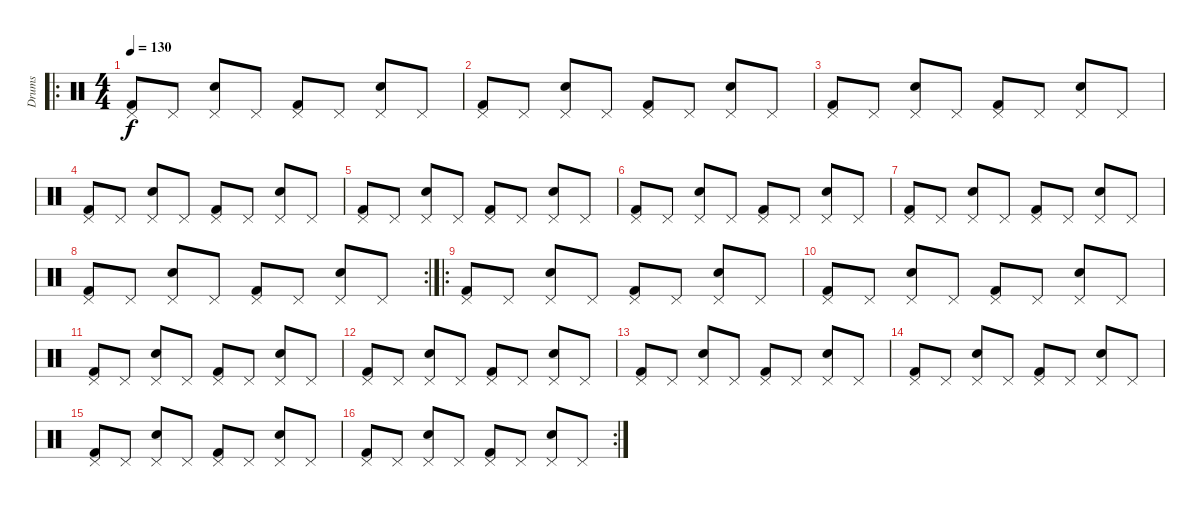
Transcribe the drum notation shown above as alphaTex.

\track ("Drums" "Drums") {instrument percussion}
\staff {score}
\articulation defaults
\ro
\ts (4 4)
\tempo 130
\clef neutral
\ks c
("Pedal Hi-Hat (hit)" "Kick (hit) 2").8{dy f} "Pedal Hi-Hat (hit)".8 ("Pedal Hi-Hat (hit)" "Snare (hit) 2").8 "Pedal Hi-Hat (hit)".8 ("Pedal Hi-Hat (hit)" "Kick (hit) 2").8 "Pedal Hi-Hat (hit)".8 ("Pedal Hi-Hat (hit)" "Snare (hit) 2").8 "Pedal Hi-Hat (hit)".8 |
("Pedal Hi-Hat (hit)" "Kick (hit) 2").8 "Pedal Hi-Hat (hit)".8 ("Pedal Hi-Hat (hit)" "Snare (hit) 2").8 "Pedal Hi-Hat (hit)".8 ("Pedal Hi-Hat (hit)" "Kick (hit) 2").8 "Pedal Hi-Hat (hit)".8 ("Pedal Hi-Hat (hit)" "Snare (hit) 2").8 "Pedal Hi-Hat (hit)".8 |
("Pedal Hi-Hat (hit)" "Kick (hit) 2").8 "Pedal Hi-Hat (hit)".8 ("Pedal Hi-Hat (hit)" "Snare (hit) 2").8 "Pedal Hi-Hat (hit)".8 ("Pedal Hi-Hat (hit)" "Kick (hit) 2").8 "Pedal Hi-Hat (hit)".8 ("Pedal Hi-Hat (hit)" "Snare (hit) 2").8 "Pedal Hi-Hat (hit)".8 |
("Pedal Hi-Hat (hit)" "Kick (hit) 2").8 "Pedal Hi-Hat (hit)".8 ("Pedal Hi-Hat (hit)" "Snare (hit) 2").8 "Pedal Hi-Hat (hit)".8 ("Pedal Hi-Hat (hit)" "Kick (hit) 2").8 "Pedal Hi-Hat (hit)".8 ("Pedal Hi-Hat (hit)" "Snare (hit) 2").8 "Pedal Hi-Hat (hit)".8 |
("Pedal Hi-Hat (hit)" "Kick (hit) 2").8 "Pedal Hi-Hat (hit)".8 ("Pedal Hi-Hat (hit)" "Snare (hit) 2").8 "Pedal Hi-Hat (hit)".8 ("Pedal Hi-Hat (hit)" "Kick (hit) 2").8 "Pedal Hi-Hat (hit)".8 ("Pedal Hi-Hat (hit)" "Snare (hit) 2").8 "Pedal Hi-Hat (hit)".8 |
("Pedal Hi-Hat (hit)" "Kick (hit) 2").8 "Pedal Hi-Hat (hit)".8 ("Pedal Hi-Hat (hit)" "Snare (hit) 2").8 "Pedal Hi-Hat (hit)".8 ("Pedal Hi-Hat (hit)" "Kick (hit) 2").8 "Pedal Hi-Hat (hit)".8 ("Pedal Hi-Hat (hit)" "Snare (hit) 2").8 "Pedal Hi-Hat (hit)".8 |
("Pedal Hi-Hat (hit)" "Kick (hit) 2").8 "Pedal Hi-Hat (hit)".8 ("Pedal Hi-Hat (hit)" "Snare (hit) 2").8 "Pedal Hi-Hat (hit)".8 ("Pedal Hi-Hat (hit)" "Kick (hit) 2").8 "Pedal Hi-Hat (hit)".8 ("Pedal Hi-Hat (hit)" "Snare (hit) 2").8 "Pedal Hi-Hat (hit)".8 |
\rc 2
("Pedal Hi-Hat (hit)" "Kick (hit) 2").8 "Pedal Hi-Hat (hit)".8 ("Pedal Hi-Hat (hit)" "Snare (hit) 2").8 "Pedal Hi-Hat (hit)".8 ("Pedal Hi-Hat (hit)" "Kick (hit) 2").8 "Pedal Hi-Hat (hit)".8 ("Pedal Hi-Hat (hit)" "Snare (hit) 2").8 "Pedal Hi-Hat (hit)".8 |
\ro
("Pedal Hi-Hat (hit)" "Kick (hit) 2").8 "Pedal Hi-Hat (hit)".8 ("Pedal Hi-Hat (hit)" "Snare (hit) 2").8 "Pedal Hi-Hat (hit)".8 ("Pedal Hi-Hat (hit)" "Kick (hit) 2").8 "Pedal Hi-Hat (hit)".8 ("Pedal Hi-Hat (hit)" "Snare (hit) 2").8 "Pedal Hi-Hat (hit)".8 |
("Pedal Hi-Hat (hit)" "Kick (hit) 2").8 "Pedal Hi-Hat (hit)".8 ("Pedal Hi-Hat (hit)" "Snare (hit) 2").8 "Pedal Hi-Hat (hit)".8 ("Pedal Hi-Hat (hit)" "Kick (hit) 2").8 "Pedal Hi-Hat (hit)".8 ("Pedal Hi-Hat (hit)" "Snare (hit) 2").8 "Pedal Hi-Hat (hit)".8 |
("Pedal Hi-Hat (hit)" "Kick (hit) 2").8 "Pedal Hi-Hat (hit)".8 ("Pedal Hi-Hat (hit)" "Snare (hit) 2").8 "Pedal Hi-Hat (hit)".8 ("Pedal Hi-Hat (hit)" "Kick (hit) 2").8 "Pedal Hi-Hat (hit)".8 ("Pedal Hi-Hat (hit)" "Snare (hit) 2").8 "Pedal Hi-Hat (hit)".8 |
("Pedal Hi-Hat (hit)" "Kick (hit) 2").8 "Pedal Hi-Hat (hit)".8 ("Pedal Hi-Hat (hit)" "Snare (hit) 2").8 "Pedal Hi-Hat (hit)".8 ("Pedal Hi-Hat (hit)" "Kick (hit) 2").8 "Pedal Hi-Hat (hit)".8 ("Pedal Hi-Hat (hit)" "Snare (hit) 2").8 "Pedal Hi-Hat (hit)".8 |
("Pedal Hi-Hat (hit)" "Kick (hit) 2").8 "Pedal Hi-Hat (hit)".8 ("Pedal Hi-Hat (hit)" "Snare (hit) 2").8 "Pedal Hi-Hat (hit)".8 ("Pedal Hi-Hat (hit)" "Kick (hit) 2").8 "Pedal Hi-Hat (hit)".8 ("Pedal Hi-Hat (hit)" "Snare (hit) 2").8 "Pedal Hi-Hat (hit)".8 |
("Pedal Hi-Hat (hit)" "Kick (hit) 2").8 "Pedal Hi-Hat (hit)".8 ("Pedal Hi-Hat (hit)" "Snare (hit) 2").8 "Pedal Hi-Hat (hit)".8 ("Pedal Hi-Hat (hit)" "Kick (hit) 2").8 "Pedal Hi-Hat (hit)".8 ("Pedal Hi-Hat (hit)" "Snare (hit) 2").8 "Pedal Hi-Hat (hit)".8 |
("Pedal Hi-Hat (hit)" "Kick (hit) 2").8 "Pedal Hi-Hat (hit)".8 ("Pedal Hi-Hat (hit)" "Snare (hit) 2").8 "Pedal Hi-Hat (hit)".8 ("Pedal Hi-Hat (hit)" "Kick (hit) 2").8 "Pedal Hi-Hat (hit)".8 ("Pedal Hi-Hat (hit)" "Snare (hit) 2").8 "Pedal Hi-Hat (hit)".8 |
\rc 2
("Pedal Hi-Hat (hit)" "Kick (hit) 2").8 "Pedal Hi-Hat (hit)".8 ("Pedal Hi-Hat (hit)" "Snare (hit) 2").8 "Pedal Hi-Hat (hit)".8 ("Pedal Hi-Hat (hit)" "Kick (hit) 2").8 "Pedal Hi-Hat (hit)".8 ("Pedal Hi-Hat (hit)" "Snare (hit) 2").8 "Pedal Hi-Hat (hit)".8
